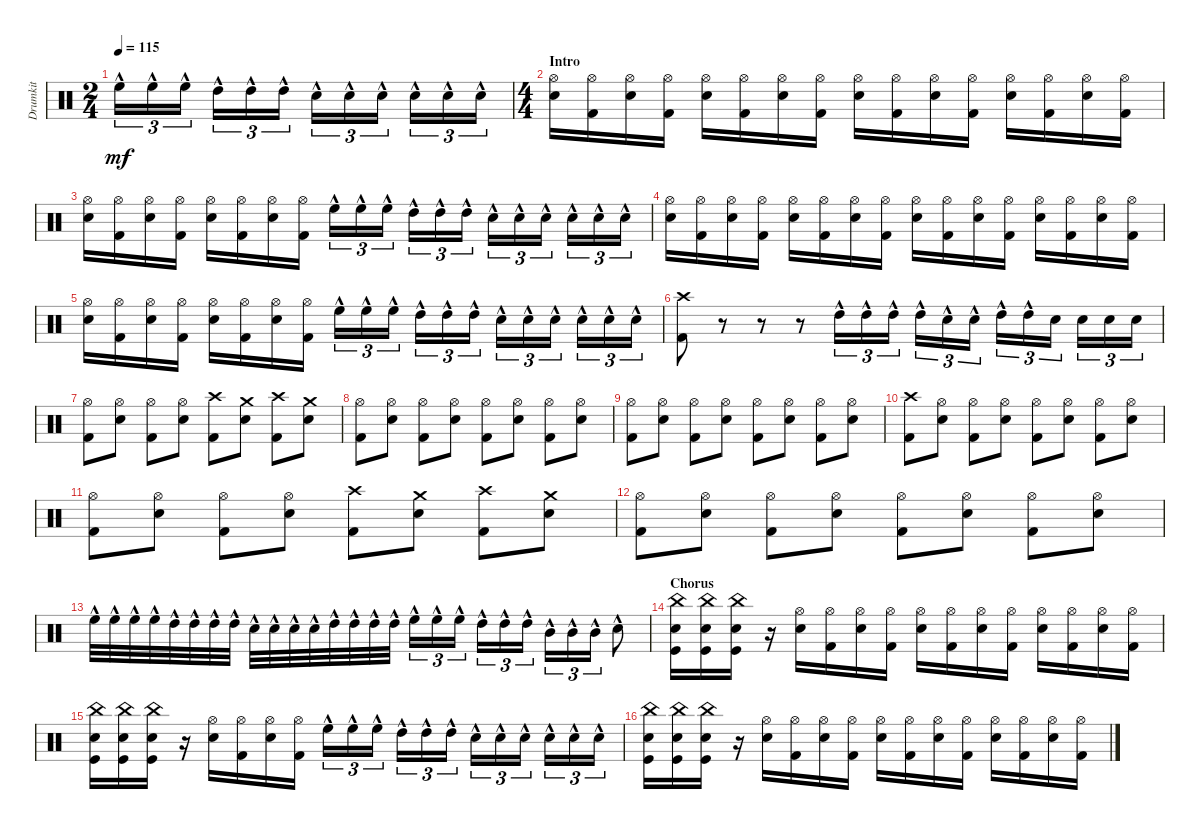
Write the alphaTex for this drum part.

\track ("Drumkit" "Drumkit") {instrument percussion}
\staff {score}
\articulation defaults
\ts (2 4)
\tempo 115
\clef neutral
\ks c "High Floor Tom (hit)"{hac}.16{tu (3 2) dy mf} "High Floor Tom (hit)"{hac}.16{tu (3 2)} "High Floor Tom (hit)"{hac}.16{tu (3 2)} "High Tom (hit)"{hac}.16{tu (3 2)} "High Tom (hit)"{hac}.16{tu (3 2)} "High Tom (hit)"{hac}.16{tu (3 2)} "Snare (hit) 2"{hac}.16{tu (3 2)} "Snare (hit) 2"{hac}.16{tu (3 2)} "Snare (hit) 2"{hac}.16{tu (3 2)} "Snare (hit) 2"{hac}.16{tu (3 2)} "Snare (hit) 2"{hac}.16{tu (3 2)} "Snare (hit) 2"{hac}.16{tu (3 2)}
|
\ts (4 4)
\section ("" "Intro")
("Hi-Hat (open)" "Snare (hit) 2").16 ("Hi-Hat (open)" "Kick (hit) 2").16 ("Hi-Hat (open)" "Snare (hit) 2").16 ("Hi-Hat (open)" "Kick (hit) 2").16 ("Hi-Hat (open)" "Snare (hit) 2").16 ("Hi-Hat (open)" "Kick (hit) 2").16 ("Hi-Hat (open)" "Snare (hit) 2").16 ("Hi-Hat (open)" "Kick (hit) 2").16 ("Hi-Hat (open)" "Snare (hit) 2").16 ("Hi-Hat (open)" "Kick (hit) 2").16 ("Hi-Hat (open)" "Snare (hit) 2").16 ("Hi-Hat (open)" "Kick (hit) 2").16 ("Hi-Hat (open)" "Snare (hit) 2").16 ("Hi-Hat (open)" "Kick (hit) 2").16 ("Hi-Hat (open)" "Snare (hit) 2").16 ("Hi-Hat (open)" "Kick (hit) 2").16 |
("Hi-Hat (open)" "Snare (hit) 2").16 ("Hi-Hat (open)" "Kick (hit) 2").16 ("Hi-Hat (open)" "Snare (hit) 2").16 ("Hi-Hat (open)" "Kick (hit) 2").16 ("Hi-Hat (open)" "Snare (hit) 2").16 ("Hi-Hat (open)" "Kick (hit) 2").16 ("Hi-Hat (open)" "Snare (hit) 2").16 ("Hi-Hat (open)" "Kick (hit) 2").16 "High Floor Tom (hit)"{hac}.16{tu (3 2)} "High Floor Tom (hit)"{hac}.16{tu (3 2)} "High Floor Tom (hit)"{hac}.16{tu (3 2)} "High Tom (hit)"{hac}.16{tu (3 2)} "High Tom (hit)"{hac}.16{tu (3 2)} "High Tom (hit)"{hac}.16{tu (3 2)} "Snare (hit) 2"{hac}.16{tu (3 2)} "Snare (hit) 2"{hac}.16{tu (3 2)} "Snare (hit) 2"{hac}.16{tu (3 2)} "Snare (hit) 2"{hac}.16{tu (3 2)} "Snare (hit) 2"{hac}.16{tu (3 2)} "Snare (hit) 2"{hac}.16{tu (3 2)} |
("Hi-Hat (open)" "Snare (hit) 2").16 ("Hi-Hat (open)" "Kick (hit) 2").16 ("Hi-Hat (open)" "Snare (hit) 2").16 ("Hi-Hat (open)" "Kick (hit) 2").16 ("Hi-Hat (open)" "Snare (hit) 2").16 ("Hi-Hat (open)" "Kick (hit) 2").16 ("Hi-Hat (open)" "Snare (hit) 2").16 ("Hi-Hat (open)" "Kick (hit) 2").16 ("Hi-Hat (open)" "Snare (hit) 2").16 ("Hi-Hat (open)" "Kick (hit) 2").16 ("Hi-Hat (open)" "Snare (hit) 2").16 ("Hi-Hat (open)" "Kick (hit) 2").16 ("Hi-Hat (open)" "Snare (hit) 2").16 ("Hi-Hat (open)" "Kick (hit) 2").16 ("Hi-Hat (open)" "Snare (hit) 2").16 ("Hi-Hat (open)" "Kick (hit) 2").16 |
("Hi-Hat (open)" "Snare (hit) 2").16 ("Hi-Hat (open)" "Kick (hit) 2").16 ("Hi-Hat (open)" "Snare (hit) 2").16 ("Hi-Hat (open)" "Kick (hit) 2").16 ("Hi-Hat (open)" "Snare (hit) 2").16 ("Hi-Hat (open)" "Kick (hit) 2").16 ("Hi-Hat (open)" "Snare (hit) 2").16 ("Hi-Hat (open)" "Kick (hit) 2").16 "High Floor Tom (hit)"{hac}.16{tu (3 2)} "High Floor Tom (hit)"{hac}.16{tu (3 2)} "High Floor Tom (hit)"{hac}.16{tu (3 2)} "High Tom (hit)"{hac}.16{tu (3 2)} "High Tom (hit)"{hac}.16{tu (3 2)} "High Tom (hit)"{hac}.16{tu (3 2)} "Snare (hit) 2"{hac}.16{tu (3 2)} "Snare (hit) 2"{hac}.16{tu (3 2)} "Snare (hit) 2"{hac}.16{tu (3 2)} "Snare (hit) 2"{hac}.16{tu (3 2)} "Snare (hit) 2"{hac}.16{tu (3 2)} "Snare (hit) 2"{hac}.16{tu (3 2)} |
\section ("" "")
("Kick (hit) 2" "Crash high (hit)").8 r.8 r.8 r.8 "High Tom (hit)"{hac}.16{tu (3 2)} "High Tom (hit)"{hac}.16{tu (3 2)} "High Tom (hit)"{hac}.16{tu (3 2)} "High Tom (hit)"{hac}.16{tu (3 2)} "Snare (hit) 2"{hac}.16{tu (3 2)} "Snare (hit) 2"{hac}.16{tu (3 2)} "High Tom (hit)"{hac}.16{tu (3 2)} "High Tom (hit)"{hac}.16{tu (3 2)} "Snare (hit) 2".16{tu (3 2)} "Snare (hit) 2".16{tu (3 2)} "Snare (hit) 2".16{tu (3 2)} "Snare (hit) 2".16{tu (3 2)} |
("Kick (hit) 2" "Hi-Hat (open)").8 ("Snare (hit) 2" "Hi-Hat (open)").8 ("Kick (hit) 2" "Hi-Hat (open)").8 ("Snare (hit) 2" "Hi-Hat (open)").8 ("Kick (hit) 2" "Crash high (hit)").8 ("Snare (hit) 2" "Crash medium (hit)").8 ("Kick (hit) 2" "Crash high (hit)").8 ("Snare (hit) 2" "Crash medium (hit)").8 |
("Kick (hit) 2" "Hi-Hat (open)").8 ("Snare (hit) 2" "Hi-Hat (open)").8 ("Kick (hit) 2" "Hi-Hat (open)").8 ("Snare (hit) 2" "Hi-Hat (open)").8 ("Kick (hit) 2" "Hi-Hat (open)").8 ("Snare (hit) 2" "Hi-Hat (open)").8 ("Kick (hit) 2" "Hi-Hat (open)").8 ("Snare (hit) 2" "Hi-Hat (open)").8 |
("Kick (hit) 2" "Hi-Hat (open)").8 ("Snare (hit) 2" "Hi-Hat (open)").8 ("Kick (hit) 2" "Hi-Hat (open)").8 ("Snare (hit) 2" "Hi-Hat (open)").8 ("Kick (hit) 2" "Hi-Hat (open)").8 ("Snare (hit) 2" "Hi-Hat (open)").8 ("Kick (hit) 2" "Hi-Hat (open)").8 ("Snare (hit) 2" "Hi-Hat (open)").8 |
("Kick (hit) 2" "Crash high (hit)").8 ("Snare (hit) 2" "Hi-Hat (open)").8 ("Kick (hit) 2" "Hi-Hat (open)").8 ("Snare (hit) 2" "Hi-Hat (open)").8 ("Kick (hit) 2" "Hi-Hat (open)").8 ("Snare (hit) 2" "Hi-Hat (open)").8 ("Kick (hit) 2" "Hi-Hat (open)").8 ("Snare (hit) 2" "Hi-Hat (open)").8 |
("Kick (hit) 2" "Hi-Hat (open)").8 ("Snare (hit) 2" "Hi-Hat (open)").8 ("Kick (hit) 2" "Hi-Hat (open)").8 ("Snare (hit) 2" "Hi-Hat (open)").8 ("Kick (hit) 2" "Crash high (hit)").8 ("Snare (hit) 2" "Crash medium (hit)").8 ("Kick (hit) 2" "Crash high (hit)").8 ("Snare (hit) 2" "Crash medium (hit)").8 |
("Kick (hit) 2" "Hi-Hat (open)").8 ("Snare (hit) 2" "Hi-Hat (open)").8 ("Kick (hit) 2" "Hi-Hat (open)").8 ("Snare (hit) 2" "Hi-Hat (open)").8 ("Kick (hit) 2" "Hi-Hat (open)").8 ("Snare (hit) 2" "Hi-Hat (open)").8 ("Kick (hit) 2" "Hi-Hat (open)").8 ("Snare (hit) 2" "Hi-Hat (open)").8 |
"High Floor Tom (hit)"{hac}.32 "High Floor Tom (hit)"{hac}.32 "High Floor Tom (hit)"{hac}.32 "High Floor Tom (hit)"{hac}.32 "High Tom (hit)"{hac}.32 "High Tom (hit)"{hac}.32 "High Tom (hit)"{hac}.32 "High Tom (hit)"{hac}.32 "Snare (hit) 2"{hac}.32 "Snare (hit) 2"{hac}.32 "Snare (hit) 2"{hac}.32 "Snare (hit) 2"{hac}.32 "High Tom (hit)"{hac}.32 "High Tom (hit)"{hac}.32 "High Tom (hit)"{hac}.32 "High Tom (hit)"{hac}.32 "High Floor Tom (hit)"{hac}.16{tu (3 2)} "High Floor Tom (hit)"{hac}.16{tu (3 2)} "High Floor Tom (hit)"{hac}.16{tu (3 2)} "High Tom (hit)"{hac}.16{tu (3 2)} "High Tom (hit)"{hac}.16{tu (3 2)} "High Tom (hit)"{hac}.16{tu (3 2)} "Mid Tom (hit)"{hac}.16{tu (3 2)} "Mid Tom (hit)"{hac}.16{tu (3 2)} "Mid Tom (hit)"{hac}.16{tu (3 2)} "Snare (hit) 2"{hac}.8 |
\section ("" "Chorus")
("Kick (hit)" "Snare (hit) 2" "China (hit)").16 ("Kick (hit)" "Snare (hit) 2" "China (hit)").16 ("Kick (hit)" "Snare (hit) 2" "China (hit)").16 r.16 ("Hi-Hat (open)" "Snare (hit) 2").16 ("Hi-Hat (open)" "Kick (hit) 2").16 ("Hi-Hat (open)" "Snare (hit) 2").16 ("Hi-Hat (open)" "Kick (hit) 2").16 ("Hi-Hat (open)" "Snare (hit) 2").16 ("Hi-Hat (open)" "Kick (hit) 2").16 ("Hi-Hat (open)" "Snare (hit) 2").16 ("Hi-Hat (open)" "Kick (hit) 2").16 ("Hi-Hat (open)" "Snare (hit) 2").16 ("Hi-Hat (open)" "Kick (hit) 2").16 ("Hi-Hat (open)" "Snare (hit) 2").16 ("Hi-Hat (open)" "Kick (hit) 2").16 |
("Kick (hit)" "Snare (hit) 2" "China (hit)").16 ("Kick (hit)" "Snare (hit) 2" "China (hit)").16 ("Kick (hit)" "Snare (hit) 2" "China (hit)").16 r.16 ("Hi-Hat (open)" "Snare (hit) 2").16 ("Hi-Hat (open)" "Kick (hit) 2").16 ("Hi-Hat (open)" "Snare (hit) 2").16 ("Hi-Hat (open)" "Kick (hit) 2").16 "High Floor Tom (hit)"{hac}.16{tu (3 2)} "High Floor Tom (hit)"{hac}.16{tu (3 2)} "High Floor Tom (hit)"{hac}.16{tu (3 2)} "High Tom (hit)"{hac}.16{tu (3 2)} "High Tom (hit)"{hac}.16{tu (3 2)} "High Tom (hit)"{hac}.16{tu (3 2)} "Snare (hit) 2"{hac}.16{tu (3 2)} "Snare (hit) 2"{hac}.16{tu (3 2)} "Snare (hit) 2"{hac}.16{tu (3 2)} "Snare (hit) 2"{hac}.16{tu (3 2)} "Snare (hit) 2"{hac}.16{tu (3 2)} "Snare (hit) 2"{hac}.16{tu (3 2)} |
("Kick (hit)" "Snare (hit) 2" "China (hit)").16 ("Kick (hit)" "Snare (hit) 2" "China (hit)").16 ("Kick (hit)" "Snare (hit) 2" "China (hit)").16 r.16 ("Hi-Hat (open)" "Snare (hit) 2").16 ("Hi-Hat (open)" "Kick (hit) 2").16 ("Hi-Hat (open)" "Snare (hit) 2").16 ("Hi-Hat (open)" "Kick (hit) 2").16 ("Hi-Hat (open)" "Snare (hit) 2").16 ("Hi-Hat (open)" "Kick (hit) 2").16 ("Hi-Hat (open)" "Snare (hit) 2").16 ("Hi-Hat (open)" "Kick (hit) 2").16 ("Hi-Hat (open)" "Snare (hit) 2").16 ("Hi-Hat (open)" "Kick (hit) 2").16 ("Hi-Hat (open)" "Snare (hit) 2").16 ("Hi-Hat (open)" "Kick (hit) 2").16
